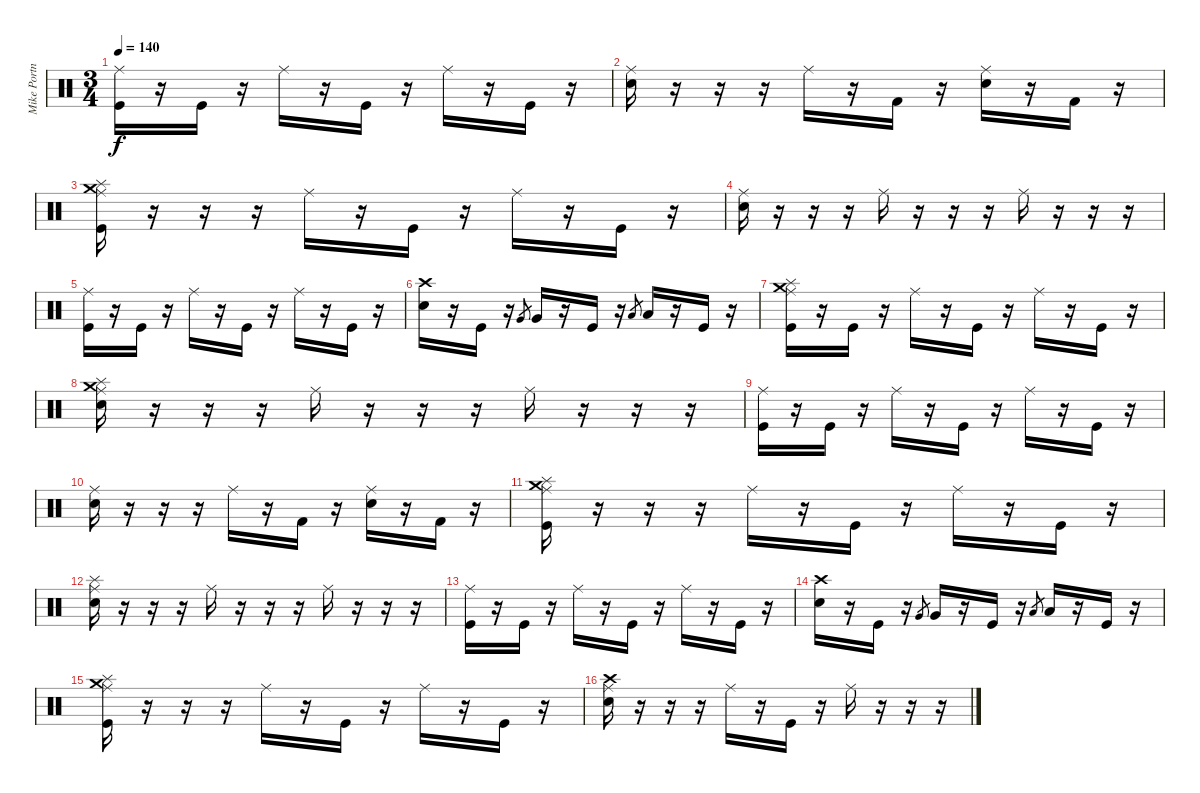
\track ("Mike Portnoy" "Mike Portn") {instrument percussion}
\staff {score}
\articulation defaults
\ts (3 4)
\tempo 140
\clef neutral
\ks c
("Kick (hit)" "Ride (middle)").16{dy f} r.16 "Kick (hit)".16 r.16 "Ride (middle)".16 r.16 "Kick (hit)".16 r.16 "Ride (middle)".16 r.16 "Kick (hit)".16 r.16 |
("Electric Snare (hit)" "Ride (middle)").16 r.16 r.16 r.16 "Ride (middle)".16 r.16 "Kick (hit) 2".16 r.16 ("Electric Snare (hit)" "Ride (middle)").16 r.16 "Kick (hit) 2".16 r.16 |
("Kick (hit)" "Crash medium (hit)" "Splash (hit)" "Ride (middle)").16 r.16 r.16 r.16 "Ride (middle)".16 r.16 "Kick (hit)".16 r.16 "Ride (middle)".16 r.16 "Kick (hit)".16 r.16 |
("Electric Snare (hit)" "Ride (middle)").16 r.16 r.16 r.16 "Ride (middle)".16 r.16 r.16 r.16 "Ride (middle)".16 r.16 r.16 r.16 |
("Kick (hit)" "Ride (middle)").16 r.16 "Kick (hit)".16 r.16 "Ride (middle)".16 r.16 "Kick (hit)".16 r.16 "Ride (middle)".16 r.16 "Kick (hit)".16 r.16 |
("Electric Snare (hit)" "Crash high (hit)").16 r.16 "Kick (hit)".16 r.16 "Very Low Tom (hit)".8{gr} "Very Low Tom (hit)".16 r.16 "Kick (hit)".16 r.16 "Low Floor Tom (hit)".8{gr} "Low Floor Tom (hit)".16 r.16 "Kick (hit)".16 r.16 |
("Kick (hit)" "Crash medium (hit)" "Splash (hit)" "Ride (middle)").16 r.16 "Kick (hit)".16 r.16 "Ride (middle)".16 r.16 "Kick (hit)".16 r.16 "Ride (middle)".16 r.16 "Kick (hit)".16 r.16 |
("Electric Snare (hit)" "Crash medium (hit)" "Splash (hit)" "Ride (middle)").16 r.16 r.16 r.16 "Ride (middle)".16 r.16 r.16 r.16 "Ride (middle)".16 r.16 r.16 r.16 |
("Kick (hit)" "Ride (middle)").16 r.16 "Kick (hit)".16 r.16 "Ride (middle)".16 r.16 "Kick (hit)".16 r.16 "Ride (middle)".16 r.16 "Kick (hit)".16 r.16 |
("Electric Snare (hit)" "Ride (middle)").16 r.16 r.16 r.16 "Ride (middle)".16 r.16 "Kick (hit) 2".16 r.16 ("Electric Snare (hit)" "Ride (middle)").16 r.16 "Kick (hit) 2".16 r.16 |
("Kick (hit)" "Crash medium (hit)" "Splash (hit)" "Ride (middle)").16 r.16 r.16 r.16 "Ride (middle)".16 r.16 "Kick (hit)".16 r.16 "Ride (middle)".16 r.16 "Kick (hit)".16 r.16 |
("Electric Snare (hit)" "Splash (hit)" "Ride (middle)").16 r.16 r.16 r.16 "Ride (middle)".16 r.16 r.16 r.16 "Ride (middle)".16 r.16 r.16 r.16 |
("Kick (hit)" "Ride (middle)").16 r.16 "Kick (hit)".16 r.16 "Ride (middle)".16 r.16 "Kick (hit)".16 r.16 "Ride (middle)".16 r.16 "Kick (hit)".16 r.16 |
("Electric Snare (hit)" "Crash high (hit)").16 r.16 "Kick (hit)".16 r.16 "Very Low Tom (hit)".8{gr} "Very Low Tom (hit)".16 r.16 "Kick (hit)".16 r.16 "Low Floor Tom (hit)".8{gr} "Low Floor Tom (hit)".16 r.16 "Kick (hit)".16 r.16 |
("Kick (hit)" "Crash medium (hit)" "Splash (hit)" "Ride (middle)").16 r.16 r.16 r.16 "Ride (middle)".16 r.16 "Kick (hit)".16 r.16 "Ride (middle)".16 r.16 "Kick (hit)".16 r.16 |
("Electric Snare (hit)" "Crash high (hit)" "Ride (middle)").16 r.16 r.16 r.16 "Ride (middle)".16 r.16 "Kick (hit)".16 r.16 "Ride (middle)".16 r.16 r.16 r.16
